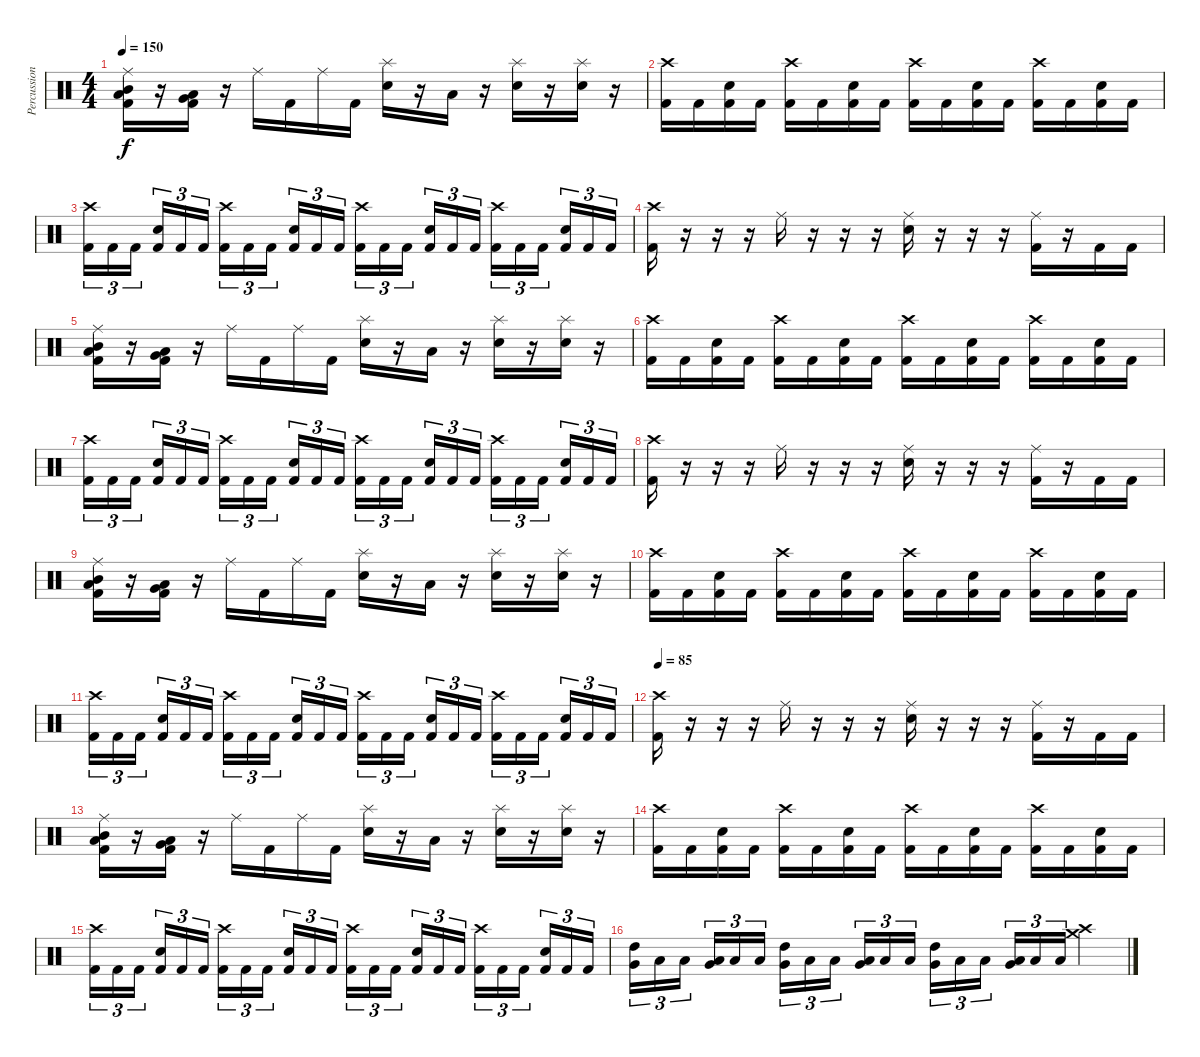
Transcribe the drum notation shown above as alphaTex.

\track ("Percussion" "Percussion") {instrument percussion}
\staff {score}
\articulation defaults
\ts (4 4)
\tempo 150
\clef neutral
\ks c
("Ride (middle)" "Mid Tom (hit)" "Low Tom (hit)" "Kick (hit) 2").16{dy f} r.16 ("Very Low Tom (hit)" "Low Floor Tom (hit)" "Kick (hit) 2").16 r.16 "Ride (middle)".16 "Kick (hit) 2".16 "Ride (middle)".16 "Kick (hit) 2".16 ("Splash (hit)" "Electric Snare (hit)").16 r.16 "Low Floor Tom (hit)".16 r.16 ("Splash (hit)" "Electric Snare (hit)").16 r.16 ("Splash (hit)" "Electric Snare (hit)").16 r.16 |
("Crash high (hit)" "Kick (hit) 2").16 "Kick (hit) 2".16 ("Electric Snare (hit)" "Kick (hit) 2").16 "Kick (hit) 2".16 ("Crash high (hit)" "Kick (hit) 2").16 "Kick (hit) 2".16 ("Electric Snare (hit)" "Kick (hit) 2").16 "Kick (hit) 2".16 ("Crash high (hit)" "Kick (hit) 2").16 "Kick (hit) 2".16 ("Electric Snare (hit)" "Kick (hit) 2").16 "Kick (hit) 2".16 ("Crash high (hit)" "Kick (hit) 2").16 "Kick (hit) 2".16 ("Electric Snare (hit)" "Kick (hit) 2").16 "Kick (hit) 2".16 |
("Crash high (hit)" "Kick (hit) 2").16{tu (3 2)} "Kick (hit) 2".16{tu (3 2)} "Kick (hit) 2".16{tu (3 2)} ("Electric Snare (hit)" "Kick (hit) 2").16{tu (3 2)} "Kick (hit) 2".16{tu (3 2)} "Kick (hit) 2".16{tu (3 2)} ("Crash high (hit)" "Kick (hit) 2").16{tu (3 2)} "Kick (hit) 2".16{tu (3 2)} "Kick (hit) 2".16{tu (3 2)} ("Electric Snare (hit)" "Kick (hit) 2").16{tu (3 2)} "Kick (hit) 2".16{tu (3 2)} "Kick (hit) 2".16{tu (3 2)} ("Crash high (hit)" "Kick (hit) 2").16{tu (3 2)} "Kick (hit) 2".16{tu (3 2)} "Kick (hit) 2".16{tu (3 2)} ("Electric Snare (hit)" "Kick (hit) 2").16{tu (3 2)} "Kick (hit) 2".16{tu (3 2)} "Kick (hit) 2".16{tu (3 2)} ("Crash high (hit)" "Kick (hit) 2").16{tu (3 2)} "Kick (hit) 2".16{tu (3 2)} "Kick (hit) 2".16{tu (3 2)} ("Electric Snare (hit)" "Kick (hit) 2").16{tu (3 2)} "Kick (hit) 2".16{tu (3 2)} "Kick (hit) 2".16{tu (3 2)} |
("Crash high (hit)" "Kick (hit) 2").16 r.16 r.16 r.16 "Ride (middle)".16 r.16 r.16 r.16 ("Ride (middle)" "Electric Snare (hit)").16 r.16 r.16 r.16 ("Ride (middle)" "Kick (hit) 2").16 r.16 "Kick (hit) 2".16 "Kick (hit) 2".16 |
("Ride (middle)" "Mid Tom (hit)" "Low Tom (hit)" "Kick (hit) 2").16 r.16 ("Very Low Tom (hit)" "Low Floor Tom (hit)" "Kick (hit) 2").16 r.16 "Ride (middle)".16 "Kick (hit) 2".16 "Ride (middle)".16 "Kick (hit) 2".16 ("Splash (hit)" "Electric Snare (hit)").16 r.16 "Low Floor Tom (hit)".16 r.16 ("Splash (hit)" "Electric Snare (hit)").16 r.16 ("Splash (hit)" "Electric Snare (hit)").16 r.16 |
("Crash high (hit)" "Kick (hit) 2").16 "Kick (hit) 2".16 ("Electric Snare (hit)" "Kick (hit) 2").16 "Kick (hit) 2".16 ("Crash high (hit)" "Kick (hit) 2").16 "Kick (hit) 2".16 ("Electric Snare (hit)" "Kick (hit) 2").16 "Kick (hit) 2".16 ("Crash high (hit)" "Kick (hit) 2").16 "Kick (hit) 2".16 ("Electric Snare (hit)" "Kick (hit) 2").16 "Kick (hit) 2".16 ("Crash high (hit)" "Kick (hit) 2").16 "Kick (hit) 2".16 ("Electric Snare (hit)" "Kick (hit) 2").16 "Kick (hit) 2".16 |
("Crash high (hit)" "Kick (hit) 2").16{tu (3 2)} "Kick (hit) 2".16{tu (3 2)} "Kick (hit) 2".16{tu (3 2)} ("Electric Snare (hit)" "Kick (hit) 2").16{tu (3 2)} "Kick (hit) 2".16{tu (3 2)} "Kick (hit) 2".16{tu (3 2)} ("Crash high (hit)" "Kick (hit) 2").16{tu (3 2)} "Kick (hit) 2".16{tu (3 2)} "Kick (hit) 2".16{tu (3 2)} ("Electric Snare (hit)" "Kick (hit) 2").16{tu (3 2)} "Kick (hit) 2".16{tu (3 2)} "Kick (hit) 2".16{tu (3 2)} ("Crash high (hit)" "Kick (hit) 2").16{tu (3 2)} "Kick (hit) 2".16{tu (3 2)} "Kick (hit) 2".16{tu (3 2)} ("Electric Snare (hit)" "Kick (hit) 2").16{tu (3 2)} "Kick (hit) 2".16{tu (3 2)} "Kick (hit) 2".16{tu (3 2)} ("Crash high (hit)" "Kick (hit) 2").16{tu (3 2)} "Kick (hit) 2".16{tu (3 2)} "Kick (hit) 2".16{tu (3 2)} ("Electric Snare (hit)" "Kick (hit) 2").16{tu (3 2)} "Kick (hit) 2".16{tu (3 2)} "Kick (hit) 2".16{tu (3 2)} |
("Crash high (hit)" "Kick (hit) 2").16 r.16 r.16 r.16 "Ride (middle)".16 r.16 r.16 r.16 ("Ride (middle)" "Electric Snare (hit)").16 r.16 r.16 r.16 ("Ride (middle)" "Kick (hit) 2").16 r.16 "Kick (hit) 2".16 "Kick (hit) 2".16 |
("Ride (middle)" "Mid Tom (hit)" "Low Tom (hit)" "Kick (hit) 2").16 r.16 ("Very Low Tom (hit)" "Low Floor Tom (hit)" "Kick (hit) 2").16 r.16 "Ride (middle)".16 "Kick (hit) 2".16 "Ride (middle)".16 "Kick (hit) 2".16 ("Splash (hit)" "Electric Snare (hit)").16 r.16 "Low Floor Tom (hit)".16 r.16 ("Splash (hit)" "Electric Snare (hit)").16 r.16 ("Splash (hit)" "Electric Snare (hit)").16 r.16 |
("Crash high (hit)" "Kick (hit) 2").16 "Kick (hit) 2".16 ("Electric Snare (hit)" "Kick (hit) 2").16 "Kick (hit) 2".16 ("Crash high (hit)" "Kick (hit) 2").16 "Kick (hit) 2".16 ("Electric Snare (hit)" "Kick (hit) 2").16 "Kick (hit) 2".16 ("Crash high (hit)" "Kick (hit) 2").16 "Kick (hit) 2".16 ("Electric Snare (hit)" "Kick (hit) 2").16 "Kick (hit) 2".16 ("Crash high (hit)" "Kick (hit) 2").16 "Kick (hit) 2".16 ("Electric Snare (hit)" "Kick (hit) 2").16 "Kick (hit) 2".16 |
("Crash high (hit)" "Kick (hit) 2").16{tu (3 2)} "Kick (hit) 2".16{tu (3 2)} "Kick (hit) 2".16{tu (3 2)} ("Electric Snare (hit)" "Kick (hit) 2").16{tu (3 2)} "Kick (hit) 2".16{tu (3 2)} "Kick (hit) 2".16{tu (3 2)} ("Crash high (hit)" "Kick (hit) 2").16{tu (3 2)} "Kick (hit) 2".16{tu (3 2)} "Kick (hit) 2".16{tu (3 2)} ("Electric Snare (hit)" "Kick (hit) 2").16{tu (3 2)} "Kick (hit) 2".16{tu (3 2)} "Kick (hit) 2".16{tu (3 2)} ("Crash high (hit)" "Kick (hit) 2").16{tu (3 2)} "Kick (hit) 2".16{tu (3 2)} "Kick (hit) 2".16{tu (3 2)} ("Electric Snare (hit)" "Kick (hit) 2").16{tu (3 2)} "Kick (hit) 2".16{tu (3 2)} "Kick (hit) 2".16{tu (3 2)} ("Crash high (hit)" "Kick (hit) 2").16{tu (3 2)} "Kick (hit) 2".16{tu (3 2)} "Kick (hit) 2".16{tu (3 2)} ("Electric Snare (hit)" "Kick (hit) 2").16{tu (3 2)} "Kick (hit) 2".16{tu (3 2)} "Kick (hit) 2".16{tu (3 2)} |
\tempo 85
("Crash high (hit)" "Kick (hit) 2").16 r.16 r.16 r.16 "Ride (middle)".16 r.16 r.16 r.16 ("Ride (middle)" "Electric Snare (hit)").16 r.16 r.16 r.16 ("Ride (middle)" "Kick (hit) 2").16 r.16 "Kick (hit) 2".16 "Kick (hit) 2".16 |
("Ride (middle)" "Mid Tom (hit)" "Low Tom (hit)" "Kick (hit) 2").16 r.16 ("Very Low Tom (hit)" "Low Floor Tom (hit)" "Kick (hit) 2").16 r.16 "Ride (middle)".16 "Kick (hit) 2".16 "Ride (middle)".16 "Kick (hit) 2".16 ("Splash (hit)" "Electric Snare (hit)").16 r.16 "Low Floor Tom (hit)".16 r.16 ("Splash (hit)" "Electric Snare (hit)").16 r.16 ("Splash (hit)" "Electric Snare (hit)").16 r.16 |
("Crash high (hit)" "Kick (hit) 2").16 "Kick (hit) 2".16 ("Electric Snare (hit)" "Kick (hit) 2").16 "Kick (hit) 2".16 ("Crash high (hit)" "Kick (hit) 2").16 "Kick (hit) 2".16 ("Electric Snare (hit)" "Kick (hit) 2").16 "Kick (hit) 2".16 ("Crash high (hit)" "Kick (hit) 2").16 "Kick (hit) 2".16 ("Electric Snare (hit)" "Kick (hit) 2").16 "Kick (hit) 2".16 ("Crash high (hit)" "Kick (hit) 2").16 "Kick (hit) 2".16 ("Electric Snare (hit)" "Kick (hit) 2").16 "Kick (hit) 2".16 |
("Crash high (hit)" "Kick (hit) 2").16{tu (3 2)} "Kick (hit) 2".16{tu (3 2)} "Kick (hit) 2".16{tu (3 2)} ("Electric Snare (hit)" "Kick (hit) 2").16{tu (3 2)} "Kick (hit) 2".16{tu (3 2)} "Kick (hit) 2".16{tu (3 2)} ("Crash high (hit)" "Kick (hit) 2").16{tu (3 2)} "Kick (hit) 2".16{tu (3 2)} "Kick (hit) 2".16{tu (3 2)} ("Electric Snare (hit)" "Kick (hit) 2").16{tu (3 2)} "Kick (hit) 2".16{tu (3 2)} "Kick (hit) 2".16{tu (3 2)} ("Crash high (hit)" "Kick (hit) 2").16{tu (3 2)} "Kick (hit) 2".16{tu (3 2)} "Kick (hit) 2".16{tu (3 2)} ("Electric Snare (hit)" "Kick (hit) 2").16{tu (3 2)} "Kick (hit) 2".16{tu (3 2)} "Kick (hit) 2".16{tu (3 2)} ("Crash high (hit)" "Kick (hit) 2").16{tu (3 2)} "Kick (hit) 2".16{tu (3 2)} "Kick (hit) 2".16{tu (3 2)} ("Electric Snare (hit)" "Kick (hit) 2").16{tu (3 2)} "Kick (hit) 2".16{tu (3 2)} "Kick (hit) 2".16{tu (3 2)} |
("High Tom (hit)" "Very Low Tom (hit)").16{tu (3 2)} "Low Floor Tom (hit)".16{tu (3 2)} "Low Floor Tom (hit)".16{tu (3 2)} ("Very Low Tom (hit)" "Low Floor Tom (hit)").16{tu (3 2)} "Low Floor Tom (hit)".16{tu (3 2)} "Low Floor Tom (hit)".16{tu (3 2)} ("High Tom (hit)" "Very Low Tom (hit)").16{tu (3 2)} "Low Floor Tom (hit)".16{tu (3 2)} "Low Floor Tom (hit)".16{tu (3 2)} ("Very Low Tom (hit)" "Low Floor Tom (hit)").16{tu (3 2)} "Low Floor Tom (hit)".16{tu (3 2)} "Low Floor Tom (hit)".16{tu (3 2)} ("High Tom (hit)" "Very Low Tom (hit)").16{tu (3 2)} "Low Floor Tom (hit)".16{tu (3 2)} "Low Floor Tom (hit)".16{tu (3 2)} ("Very Low Tom (hit)" "Low Floor Tom (hit)").16{tu (3 2)} "Low Floor Tom (hit)".16{tu (3 2)} "Low Floor Tom (hit)".16{tu (3 2)} ("Crash medium (hit)" "Crash high (hit)").4
